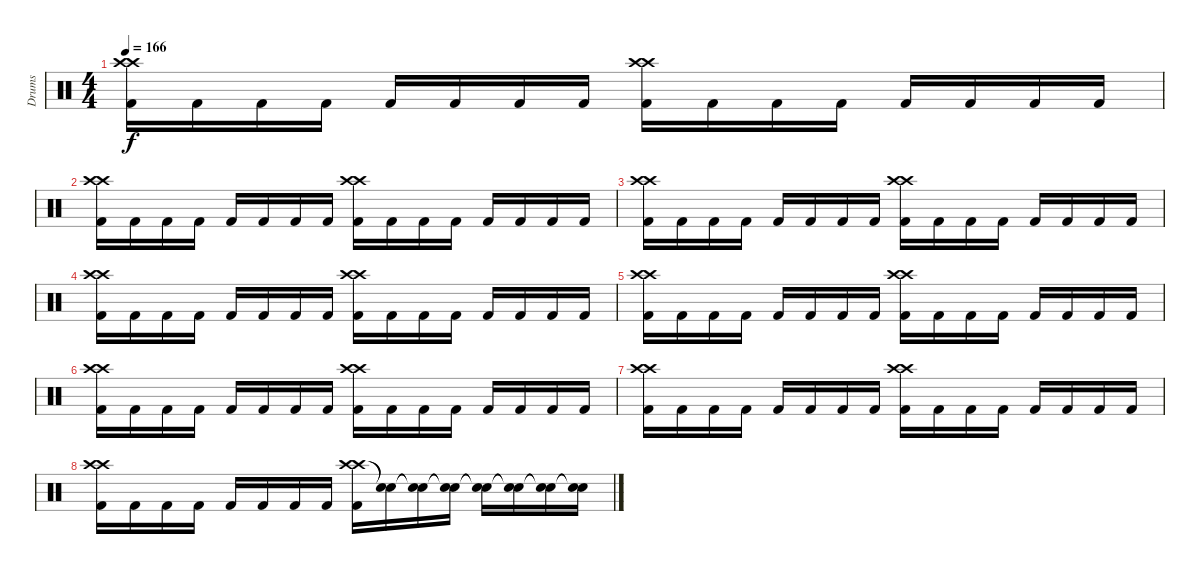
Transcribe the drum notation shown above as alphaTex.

\track ("Drums" "Drums") {instrument percussion}
\staff {score}
\articulation defaults
\ts (4 4)
\tempo 166
\clef neutral
\ks c
("Crash high (hit)" "Crash high (hit)" "Kick (hit) 2").16{dy f} "Kick (hit) 2".16 "Kick (hit) 2".16 "Kick (hit) 2".16 "Kick (hit) 2".16 "Kick (hit) 2".16 "Kick (hit) 2".16 "Kick (hit) 2".16 ("Crash high (hit)" "Crash high (hit)" "Kick (hit) 2").16 "Kick (hit) 2".16 "Kick (hit) 2".16 "Kick (hit) 2".16 "Kick (hit) 2".16 "Kick (hit) 2".16 "Kick (hit) 2".16 "Kick (hit) 2".16 |
("Crash high (hit)" "Crash high (hit)" "Kick (hit) 2").16 "Kick (hit) 2".16 "Kick (hit) 2".16 "Kick (hit) 2".16 "Kick (hit) 2".16 "Kick (hit) 2".16 "Kick (hit) 2".16 "Kick (hit) 2".16 ("Crash high (hit)" "Crash high (hit)" "Kick (hit) 2").16 "Kick (hit) 2".16 "Kick (hit) 2".16 "Kick (hit) 2".16 "Kick (hit) 2".16 "Kick (hit) 2".16 "Kick (hit) 2".16 "Kick (hit) 2".16 |
("Crash high (hit)" "Crash high (hit)" "Kick (hit) 2").16 "Kick (hit) 2".16 "Kick (hit) 2".16 "Kick (hit) 2".16 "Kick (hit) 2".16 "Kick (hit) 2".16 "Kick (hit) 2".16 "Kick (hit) 2".16 ("Crash high (hit)" "Crash high (hit)" "Kick (hit) 2").16 "Kick (hit) 2".16 "Kick (hit) 2".16 "Kick (hit) 2".16 "Kick (hit) 2".16 "Kick (hit) 2".16 "Kick (hit) 2".16 "Kick (hit) 2".16 |
("Crash high (hit)" "Crash high (hit)" "Kick (hit) 2").16 "Kick (hit) 2".16 "Kick (hit) 2".16 "Kick (hit) 2".16 "Kick (hit) 2".16 "Kick (hit) 2".16 "Kick (hit) 2".16 "Kick (hit) 2".16 ("Crash high (hit)" "Crash high (hit)" "Kick (hit) 2").16 "Kick (hit) 2".16 "Kick (hit) 2".16 "Kick (hit) 2".16 "Kick (hit) 2".16 "Kick (hit) 2".16 "Kick (hit) 2".16 "Kick (hit) 2".16 |
("Crash high (hit)" "Crash high (hit)" "Kick (hit) 2").16 "Kick (hit) 2".16 "Kick (hit) 2".16 "Kick (hit) 2".16 "Kick (hit) 2".16 "Kick (hit) 2".16 "Kick (hit) 2".16 "Kick (hit) 2".16 ("Crash high (hit)" "Crash high (hit)" "Kick (hit) 2").16 "Kick (hit) 2".16 "Kick (hit) 2".16 "Kick (hit) 2".16 "Kick (hit) 2".16 "Kick (hit) 2".16 "Kick (hit) 2".16 "Kick (hit) 2".16 |
("Crash high (hit)" "Crash high (hit)" "Kick (hit) 2").16 "Kick (hit) 2".16 "Kick (hit) 2".16 "Kick (hit) 2".16 "Kick (hit) 2".16 "Kick (hit) 2".16 "Kick (hit) 2".16 "Kick (hit) 2".16 ("Crash high (hit)" "Crash high (hit)" "Kick (hit) 2").16 "Kick (hit) 2".16 "Kick (hit) 2".16 "Kick (hit) 2".16 "Kick (hit) 2".16 "Kick (hit) 2".16 "Kick (hit) 2".16 "Kick (hit) 2".16 |
("Crash high (hit)" "Crash high (hit)" "Kick (hit) 2").16 "Kick (hit) 2".16 "Kick (hit) 2".16 "Kick (hit) 2".16 "Kick (hit) 2".16 "Kick (hit) 2".16 "Kick (hit) 2".16 "Kick (hit) 2".16 ("Crash high (hit)" "Crash high (hit)" "Kick (hit) 2").16 "Kick (hit) 2".16 "Kick (hit) 2".16 "Kick (hit) 2".16 "Kick (hit) 2".16 "Kick (hit) 2".16 "Kick (hit) 2".16 "Kick (hit) 2".16 |
("Crash high (hit)" "Crash high (hit)" "Kick (hit) 2").16 "Kick (hit) 2".16 "Kick (hit) 2".16 "Kick (hit) 2".16 "Kick (hit) 2".16 "Kick (hit) 2".16 "Kick (hit) 2".16 "Kick (hit) 2".16 ("Crash high (hit)" "Crash high (hit)" "Kick (hit) 2").16 ("Snare (hit)"{t} "Snare (hit)"{t}).16 ("Snare (hit)"{t} "Snare (hit)"{t}).16 ("Snare (hit)"{t} "Snare (hit)"{t}).16 ("Snare (hit)"{t} "Snare (hit)"{t}).16 ("Snare (hit)"{t} "Snare (hit)"{t}).16 ("Snare (hit)"{t} "Snare (hit)"{t}).16 ("Snare (hit)"{t} "Snare (hit)"{t}).16
